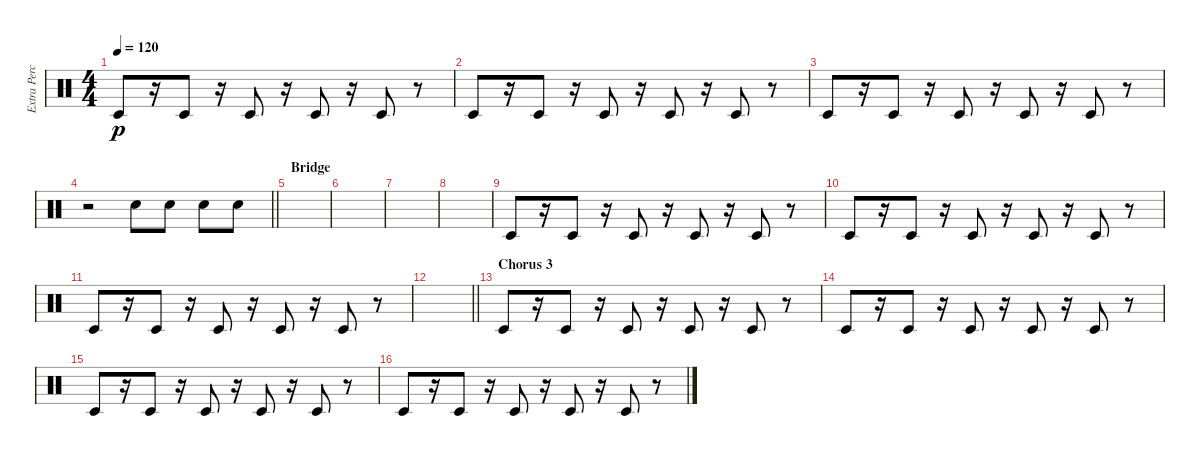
\track ("Extra Percussion" "Extra Perc") {instrument percussion}
\staff {score}
\articulation defaults
\ts (4 4)
\tempo 120
\clef neutral
\ks c "Timbale low (hit)".8{dy p}
r.16 "Timbale low (hit)".8 r.16 "Timbale low (hit)".8 r.16 "Timbale low (hit)".8 r.16 "Timbale low (hit)".8 r.8 |
"Timbale low (hit)".8 r.16 "Timbale low (hit)".8 r.16 "Timbale low (hit)".8 r.16 "Timbale low (hit)".8 r.16 "Timbale low (hit)".8 r.8 |
"Timbale low (hit)".8 r.16 "Timbale low (hit)".8 r.16 "Timbale low (hit)".8 r.16 "Timbale low (hit)".8 r.16 "Timbale low (hit)".8 r.8 |
\barLineRight lightlight
r.2 "Hand Clap (hit)".8 "Hand Clap (hit)".8 "Hand Clap (hit)".8 "Hand Clap (hit)".8 |
\section ("" "Bridge")
|
|
|
|
"Timbale low (hit)".8 r.16 "Timbale low (hit)".8 r.16 "Timbale low (hit)".8 r.16 "Timbale low (hit)".8 r.16 "Timbale low (hit)".8 r.8 |
"Timbale low (hit)".8 r.16 "Timbale low (hit)".8 r.16 "Timbale low (hit)".8 r.16 "Timbale low (hit)".8 r.16 "Timbale low (hit)".8 r.8 |
"Timbale low (hit)".8 r.16 "Timbale low (hit)".8 r.16 "Timbale low (hit)".8 r.16 "Timbale low (hit)".8 r.16 "Timbale low (hit)".8 r.8 |
\barLineRight lightlight
|
\section ("" "Chorus 3")
"Timbale low (hit)".8 r.16 "Timbale low (hit)".8 r.16 "Timbale low (hit)".8 r.16 "Timbale low (hit)".8 r.16 "Timbale low (hit)".8 r.8 |
"Timbale low (hit)".8 r.16 "Timbale low (hit)".8 r.16 "Timbale low (hit)".8 r.16 "Timbale low (hit)".8 r.16 "Timbale low (hit)".8 r.8 |
"Timbale low (hit)".8 r.16 "Timbale low (hit)".8 r.16 "Timbale low (hit)".8 r.16 "Timbale low (hit)".8 r.16 "Timbale low (hit)".8 r.8 |
"Timbale low (hit)".8 r.16 "Timbale low (hit)".8 r.16 "Timbale low (hit)".8 r.16 "Timbale low (hit)".8 r.16 "Timbale low (hit)".8 r.8
